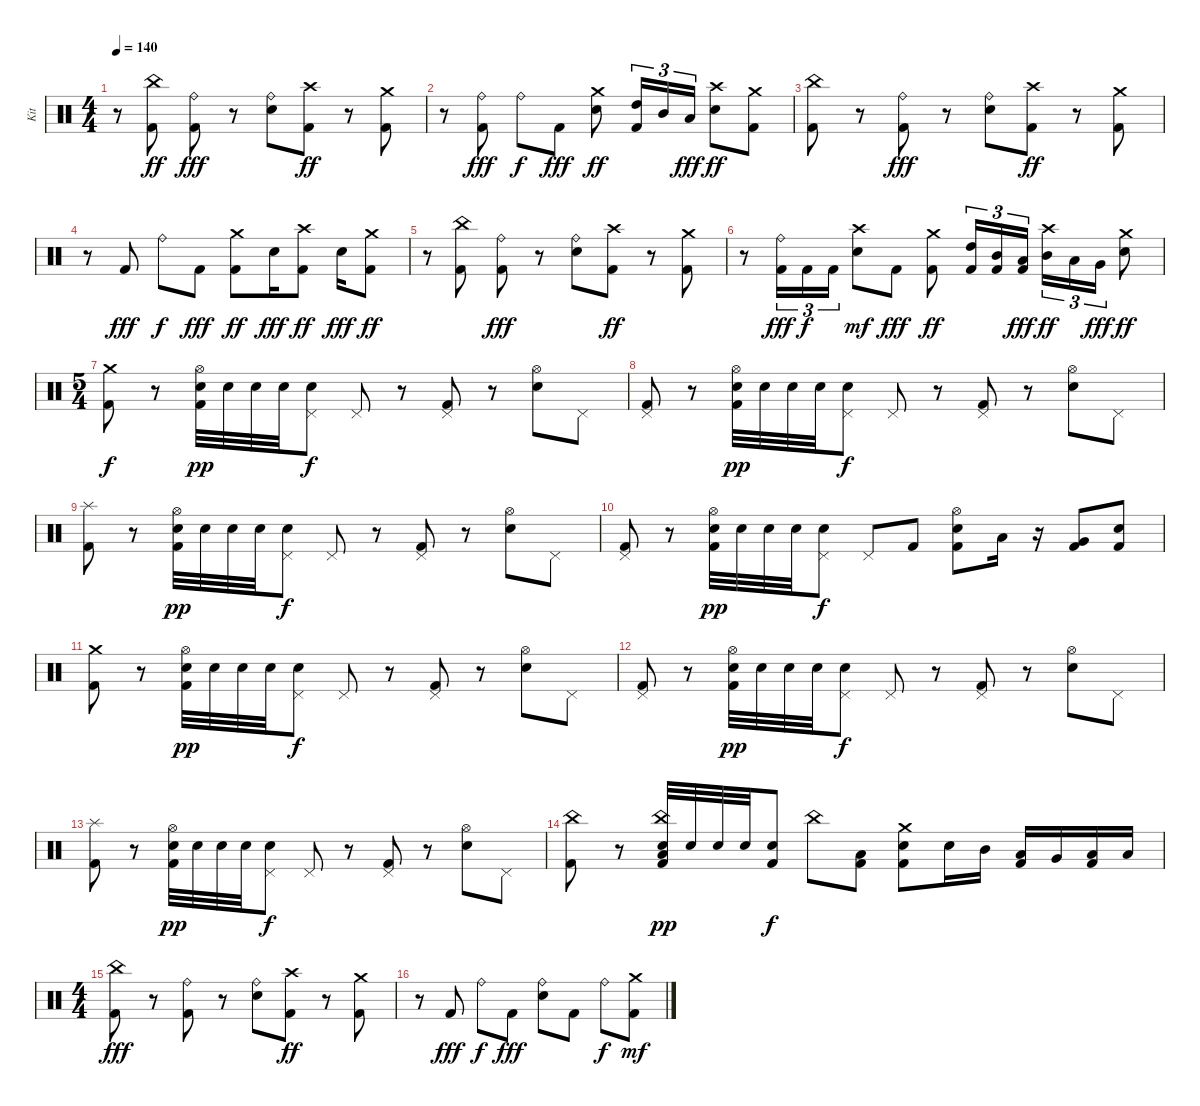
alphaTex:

\track ("Kit" "Kit") {instrument percussion}
\staff {score}
\articulation defaults
\ts (4 4)
\tempo 140
\clef neutral
\ks c
r.8{dy mf} ("Kick (hit) 2" "China (hit)").8{dy ff} ("Kick (hit) 2" "Ride (bell)").8{dy fff} r.8 ("Snare (hit) 2" "Ride (bell)").8 ("Kick (hit) 2" "Crash high (hit)").8{dy ff} r.8 ("Kick (hit) 2" "Crash medium (hit)").8 |
r.8 ("Kick (hit) 2" "Ride (bell)").8{dy fff} "Ride (bell)".8{dy f} "Kick (hit) 2".8{dy fff} ("Snare (hit) 2" "Crash medium (hit)").8{dy ff} ("Kick (hit) 2" "High Tom (hit)").16{tu (3 2)} "Mid Tom (hit)".16{tu (3 2)} "Low Tom (hit)".16{tu (3 2) dy fff} ("Snare (hit) 2" "Crash high (hit)").8{dy ff} ("Kick (hit) 2" "Crash medium (hit)").8 |
("Kick (hit) 2" "China (hit)").8 r.8 ("Kick (hit) 2" "Ride (bell)").8{dy fff} r.8 ("Snare (hit) 2" "Ride (bell)").8 ("Kick (hit) 2" "Crash high (hit)").8{dy ff} r.8 ("Kick (hit) 2" "Crash medium (hit)").8 |
r.8 "Kick (hit) 2".8{dy fff} "Ride (bell)".8{dy f} "Kick (hit) 2".8{dy fff} ("Kick (hit) 2" "Crash medium (hit)").8{dy ff} "Snare (hit) 2".16{dy fff} ("Kick (hit) 2" "Crash high (hit)").8{dy ff} "Snare (hit) 2".16{dy fff} ("Kick (hit) 2" "Crash medium (hit)").8{dy ff} |
r.8 ("Kick (hit) 2" "China (hit)").8 ("Kick (hit) 2" "Ride (bell)").8{dy fff} r.8 ("Snare (hit) 2" "Ride (bell)").8 ("Kick (hit) 2" "Crash high (hit)").8{dy ff} r.8 ("Kick (hit) 2" "Crash medium (hit)").8 |
r.8 ("Kick (hit) 2" "Ride (bell)").16{tu (3 2) dy fff} "Kick (hit) 2".16{tu (3 2) dy f} "Kick (hit) 2".16{tu (3 2)} ("Snare (hit) 2" "Crash high (hit)").8{dy mf} "Kick (hit) 2".8{dy fff} ("Kick (hit) 2" "Crash medium (hit)").8{dy ff} ("Kick (hit) 2" "High Tom (hit)").16{tu (3 2)} ("Kick (hit) 2" "Mid Tom (hit)").16{tu (3 2)} ("Kick (hit) 2" "Low Tom (hit)").16{tu (3 2) dy fff} ("Mid Tom (hit)" "Crash high (hit)").16{tu (3 2) dy ff} "Low Tom (hit)".16{tu (3 2)} "Very Low Tom (hit)".16{tu (3 2) dy fff} ("Snare (hit) 2" "Crash medium (hit)").8{dy ff} |
\ts (5 4)
("Kick (hit) 2" "Crash medium (hit)").8{dy f} r.8 ("Kick (hit) 2" "Snare (hit) 2" "Hi-Hat (open)").32{dy pp} "Snare (hit) 2".32 "Snare (hit) 2".32 "Snare (hit) 2".32 ("Snare (hit) 2" "Pedal Hi-Hat (hit)").8{dy f} "Pedal Hi-Hat (hit)".8 r.8 ("Kick (hit) 2" "Pedal Hi-Hat (hit)").8 r.8 ("Snare (hit) 2" "Hi-Hat (open)").8 "Pedal Hi-Hat (hit)".8 |
("Kick (hit) 2" "Pedal Hi-Hat (hit)").8 r.8 ("Kick (hit) 2" "Snare (hit) 2" "Hi-Hat (open)").32{dy pp} "Snare (hit) 2".32 "Snare (hit) 2".32 "Snare (hit) 2".32 ("Snare (hit) 2" "Pedal Hi-Hat (hit)").8{dy f} "Pedal Hi-Hat (hit)".8 r.8 ("Kick (hit) 2" "Pedal Hi-Hat (hit)").8 r.8 ("Snare (hit) 2" "Hi-Hat (open)").8 "Pedal Hi-Hat (hit)".8 |
("Kick (hit) 2" "Splash (hit)").8 r.8 ("Kick (hit) 2" "Snare (hit) 2" "Hi-Hat (open)").32{dy pp} "Snare (hit) 2".32 "Snare (hit) 2".32 "Snare (hit) 2".32 ("Snare (hit) 2" "Pedal Hi-Hat (hit)").8{dy f} "Pedal Hi-Hat (hit)".8 r.8 ("Kick (hit) 2" "Pedal Hi-Hat (hit)").8 r.8 ("Snare (hit) 2" "Hi-Hat (open)").8 "Pedal Hi-Hat (hit)".8 |
("Kick (hit) 2" "Pedal Hi-Hat (hit)").8 r.8 ("Kick (hit) 2" "Snare (hit) 2" "Hi-Hat (open)").32{dy pp} "Snare (hit) 2".32 "Snare (hit) 2".32 "Snare (hit) 2".32 ("Snare (hit) 2" "Pedal Hi-Hat (hit)").8{dy f} "Pedal Hi-Hat (hit)".8 "Kick (hit) 2".8 ("Kick (hit) 2" "Snare (hit) 2" "Hi-Hat (open)").8 "Low Tom (hit)".16 r.16 ("Kick (hit) 2" "Very Low Tom (hit)").8 ("Kick (hit) 2" "Snare (hit) 2").8 |
("Kick (hit) 2" "Crash medium (hit)").8 r.8 ("Kick (hit) 2" "Snare (hit) 2" "Hi-Hat (open)").32{dy pp} "Snare (hit) 2".32 "Snare (hit) 2".32 "Snare (hit) 2".32 ("Snare (hit) 2" "Pedal Hi-Hat (hit)").8{dy f} "Pedal Hi-Hat (hit)".8 r.8 ("Kick (hit) 2" "Pedal Hi-Hat (hit)").8 r.8 ("Snare (hit) 2" "Hi-Hat (open)").8 "Pedal Hi-Hat (hit)".8 |
("Kick (hit) 2" "Pedal Hi-Hat (hit)").8 r.8 ("Kick (hit) 2" "Snare (hit) 2" "Hi-Hat (open)").32{dy pp} "Snare (hit) 2".32 "Snare (hit) 2".32 "Snare (hit) 2".32 ("Snare (hit) 2" "Pedal Hi-Hat (hit)").8{dy f} "Pedal Hi-Hat (hit)".8 r.8 ("Kick (hit) 2" "Pedal Hi-Hat (hit)").8 r.8 ("Snare (hit) 2" "Hi-Hat (open)").8 "Pedal Hi-Hat (hit)".8 |
("Kick (hit) 2" "Splash (hit)").8 r.8 ("Kick (hit) 2" "Snare (hit) 2" "Hi-Hat (open)").32{dy pp} "Snare (hit) 2".32 "Snare (hit) 2".32 "Snare (hit) 2".32 ("Snare (hit) 2" "Pedal Hi-Hat (hit)").8{dy f} "Pedal Hi-Hat (hit)".8 r.8 ("Kick (hit) 2" "Pedal Hi-Hat (hit)").8 r.8 ("Snare (hit) 2" "Hi-Hat (open)").8 "Pedal Hi-Hat (hit)".8 |
("Kick (hit) 2" "China (hit)").8 r.8 ("Kick (hit) 2" "Snare (hit) 2" "Low Floor Tom (hit)" "China (hit)").32{dy pp} "Snare (hit) 2".32 "Snare (hit) 2".32 "Snare (hit) 2".32 ("Kick (hit) 2" "Snare (hit) 2").8{dy f} "China (hit)".8 ("Kick (hit) 2" "Low Floor Tom (hit)").8 ("Kick (hit) 2" "Snare (hit) 2" "Crash medium (hit)").8 "Snare (hit) 2".16 "Mid Tom (hit)".16 ("Kick (hit) 2" "Low Tom (hit)").16 "Very Low Tom (hit)".16 ("Kick (hit) 2" "Low Floor Tom (hit)").16 "Low Floor Tom (hit)".16 |
\ts (4 4)
("Kick (hit) 2" "China (hit)").8{dy fff} r.8 ("Kick (hit) 2" "Ride (bell)").8 r.8 ("Snare (hit) 2" "Ride (bell)").8 ("Kick (hit) 2" "Crash high (hit)").8{dy ff} r.8 ("Kick (hit) 2" "Crash medium (hit)").8 |
r.8 "Kick (hit) 2".8{dy fff} "Ride (bell)".8{dy f} "Kick (hit) 2".8{dy fff} ("Snare (hit) 2" "Ride (bell)").8 "Kick (hit) 2".8 "Ride (bell)".8{dy f} ("Kick (hit) 2" "Crash medium (hit)").8{dy mf}
